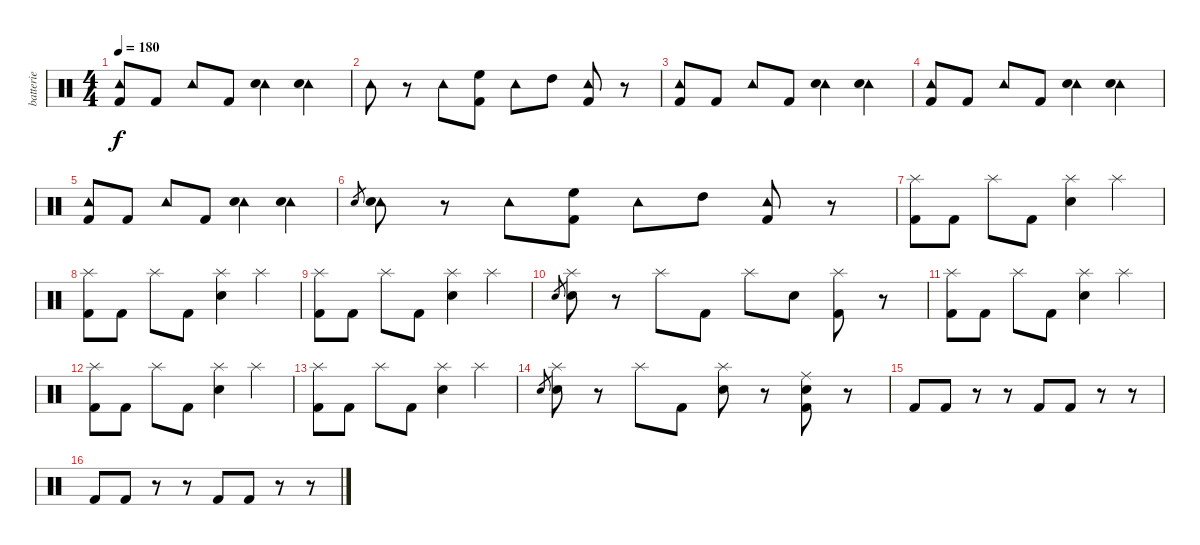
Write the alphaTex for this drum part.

\track ("batterie" "batterie") {instrument percussion}
\staff {score}
\articulation defaults
\ts (4 4)
\tempo 180
\clef neutral
\ks c
("Tambourine (hit)" "Kick (hit) 2").8{dy f} "Kick (hit) 2".8 "Tambourine (hit)".8 "Kick (hit) 2".8 ("Tambourine (hit)" "Electric Snare (hit)").4 ("Tambourine (hit)" "Electric Snare (hit)").4 |
"Tambourine (hit)".8 r.8 "Tambourine (hit)".8 ("High Floor Tom (hit)" "Kick (hit) 2").8 "Tambourine (hit)".8 "High Tom (hit)".8 ("Tambourine (hit)" "Kick (hit) 2").8 r.8 |
("Tambourine (hit)" "Kick (hit) 2").8 "Kick (hit) 2".8 "Tambourine (hit)".8 "Kick (hit) 2".8 ("Tambourine (hit)" "Electric Snare (hit)").4 ("Tambourine (hit)" "Electric Snare (hit)").4 |
("Tambourine (hit)" "Kick (hit) 2").8 "Kick (hit) 2".8 "Tambourine (hit)".8 "Kick (hit) 2".8 ("Tambourine (hit)" "Electric Snare (hit)").4 ("Tambourine (hit)" "Electric Snare (hit)").4 |
("Tambourine (hit)" "Kick (hit) 2").8 "Kick (hit) 2".8 "Tambourine (hit)".8 "Kick (hit) 2".8 ("Tambourine (hit)" "Electric Snare (hit)").4 ("Tambourine (hit)" "Electric Snare (hit)").4 |
"Electric Snare (hit)".8{gr} ("Tambourine (hit)" "Electric Snare (hit)").8 r.8 "Tambourine (hit)".8 ("High Floor Tom (hit)" "Kick (hit) 2").8 "Tambourine (hit)".8 "High Tom (hit)".8 ("Tambourine (hit)" "Kick (hit) 2").8 r.8 |
("Splash (hit)" "Kick (hit) 2").8 "Kick (hit) 2".8 "Splash (hit)".8 "Kick (hit) 2".8 ("Splash (hit)" "Electric Snare (hit)").4 "Splash (hit)".4 |
("Splash (hit)" "Kick (hit) 2").8 "Kick (hit) 2".8 "Splash (hit)".8 "Kick (hit) 2".8 ("Splash (hit)" "Electric Snare (hit)").4 "Splash (hit)".4 |
("Splash (hit)" "Kick (hit) 2").8 "Kick (hit) 2".8 "Splash (hit)".8 "Kick (hit) 2".8 ("Splash (hit)" "Electric Snare (hit)").4 "Splash (hit)".4 |
"Electric Snare (hit)".8{gr} ("Splash (hit)" "Electric Snare (hit)").8 r.8 "Splash (hit)".8 "Kick (hit) 2".8 "Splash (hit)".8 "Electric Snare (hit)".8 ("Splash (hit)" "Kick (hit) 2").8 r.8 |
("Splash (hit)" "Kick (hit) 2").8 "Kick (hit) 2".8 "Splash (hit)".8 "Kick (hit) 2".8 ("Splash (hit)" "Electric Snare (hit)").4 "Splash (hit)".4 |
("Splash (hit)" "Kick (hit) 2").8 "Kick (hit) 2".8 "Splash (hit)".8 "Kick (hit) 2".8 ("Splash (hit)" "Electric Snare (hit)").4 "Splash (hit)".4 |
("Splash (hit)" "Kick (hit) 2").8 "Kick (hit) 2".8 "Splash (hit)".8 "Kick (hit) 2".8 ("Splash (hit)" "Electric Snare (hit)").4 "Splash (hit)".4 |
"Electric Snare (hit)".8{gr} ("Splash (hit)" "Electric Snare (hit)").8 r.8 "Splash (hit)".8 "Kick (hit) 2".8 ("Splash (hit)" "Electric Snare (hit)").8 r.8 ("Ride (middle)" "Electric Snare (hit)" "Kick (hit) 2").8 r.8 |
"Kick (hit) 2".8 "Kick (hit) 2".8 r.8 r.8 "Kick (hit) 2".8 "Kick (hit) 2".8 r.8 r.8 |
"Kick (hit) 2".8 "Kick (hit) 2".8 r.8 r.8 "Kick (hit) 2".8 "Kick (hit) 2".8 r.8 r.8
